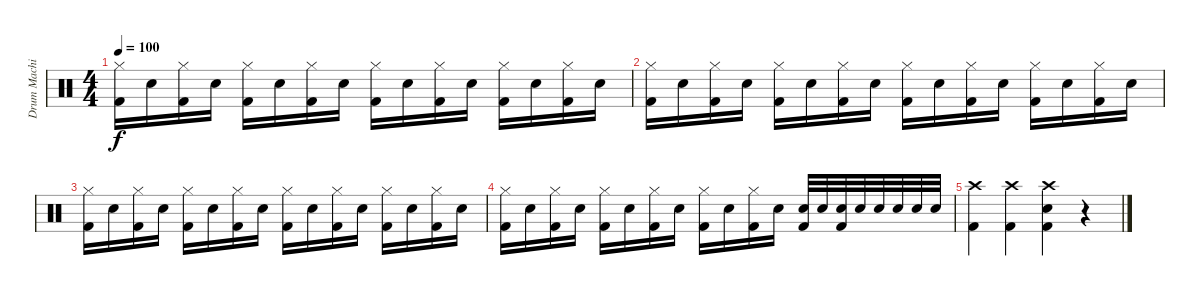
\track ("Drum Machine" "Drum Machi") {instrument percussion}
\staff {score}
\articulation defaults
\ts (4 4)
\tempo 100
\clef neutral
\ks c
("Hi-Hat (closed)" "Kick (hit) 2").16{dy f} "Snare (hit) 2".16 ("Hi-Hat (closed)" "Kick (hit) 2").16 "Snare (hit) 2".16 ("Hi-Hat (closed)" "Kick (hit) 2").16 "Snare (hit) 2".16 ("Hi-Hat (closed)" "Kick (hit) 2").16 "Snare (hit) 2".16 ("Hi-Hat (closed)" "Kick (hit) 2").16 "Snare (hit) 2".16 ("Hi-Hat (closed)" "Kick (hit) 2").16 "Snare (hit) 2".16 ("Hi-Hat (closed)" "Kick (hit) 2").16 "Snare (hit) 2".16 ("Hi-Hat (closed)" "Kick (hit) 2").16 "Snare (hit) 2".16 |
("Hi-Hat (closed)" "Kick (hit) 2").16 "Snare (hit) 2".16 ("Hi-Hat (closed)" "Kick (hit) 2").16 "Snare (hit) 2".16 ("Hi-Hat (closed)" "Kick (hit) 2").16 "Snare (hit) 2".16 ("Hi-Hat (closed)" "Kick (hit) 2").16 "Snare (hit) 2".16 ("Hi-Hat (closed)" "Kick (hit) 2").16 "Snare (hit) 2".16 ("Hi-Hat (closed)" "Kick (hit) 2").16 "Snare (hit) 2".16 ("Hi-Hat (closed)" "Kick (hit) 2").16 "Snare (hit) 2".16 ("Hi-Hat (closed)" "Kick (hit) 2").16 "Snare (hit) 2".16 |
("Hi-Hat (closed)" "Kick (hit) 2").16 "Snare (hit) 2".16 ("Hi-Hat (closed)" "Kick (hit) 2").16 "Snare (hit) 2".16 ("Hi-Hat (closed)" "Kick (hit) 2").16 "Snare (hit) 2".16 ("Hi-Hat (closed)" "Kick (hit) 2").16 "Snare (hit) 2".16 ("Hi-Hat (closed)" "Kick (hit) 2").16 "Snare (hit) 2".16 ("Hi-Hat (closed)" "Kick (hit) 2").16 "Snare (hit) 2".16 ("Hi-Hat (closed)" "Kick (hit) 2").16 "Snare (hit) 2".16 ("Hi-Hat (closed)" "Kick (hit) 2").16 "Snare (hit) 2".16 |
("Hi-Hat (closed)" "Kick (hit) 2").16 "Snare (hit) 2".16 ("Hi-Hat (closed)" "Kick (hit) 2").16 "Snare (hit) 2".16 ("Hi-Hat (closed)" "Kick (hit) 2").16 "Snare (hit) 2".16 ("Hi-Hat (closed)" "Kick (hit) 2").16 "Snare (hit) 2".16 ("Hi-Hat (closed)" "Kick (hit) 2").16 "Snare (hit) 2".16 ("Hi-Hat (closed)" "Kick (hit) 2").16 "Snare (hit) 2".16 ("Snare (hit) 2" "Kick (hit) 2").32 "Snare (hit) 2".32 ("Snare (hit) 2" "Kick (hit) 2").32 "Snare (hit) 2".32 "Snare (hit) 2".32 "Snare (hit) 2".32 "Snare (hit) 2".32 "Snare (hit) 2".32 |
("Crash high (hit)" "Kick (hit) 2").4 ("Crash high (hit)" "Kick (hit) 2").4 ("Crash high (hit)" "Snare (hit) 2" "Kick (hit) 2").4 r.4
